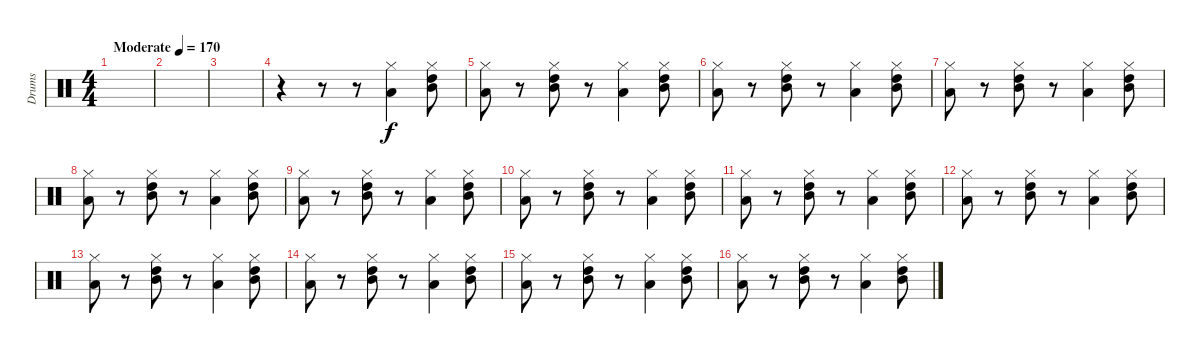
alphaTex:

\track ("Drums" "Drums") {instrument percussion}
\staff {score}
\articulation defaults
\ts (4 4)
\tempo (170 "Moderate")
\clef neutral
\ks c
|
|
|
r.4 r.8 r.8 ("Hi-Hat (closed)" "Low Floor Tom (hit)").4 ("Hi-Hat (closed)" "Mid Tom (hit)" "High Tom (hit)").8 |
("Hi-Hat (closed)" "Low Floor Tom (hit)").8 r.8 ("Hi-Hat (closed)" "Mid Tom (hit)" "High Tom (hit)").8 r.8 ("Hi-Hat (closed)" "Low Floor Tom (hit)").4 ("Hi-Hat (closed)" "Mid Tom (hit)" "High Tom (hit)").8 |
("Hi-Hat (closed)" "Low Floor Tom (hit)").8 r.8 ("Hi-Hat (closed)" "Mid Tom (hit)" "High Tom (hit)").8 r.8 ("Hi-Hat (closed)" "Low Floor Tom (hit)").4 ("Hi-Hat (closed)" "Mid Tom (hit)" "High Tom (hit)").8 |
("Hi-Hat (closed)" "Low Floor Tom (hit)").8 r.8 ("Hi-Hat (closed)" "Mid Tom (hit)" "High Tom (hit)").8 r.8 ("Hi-Hat (closed)" "Low Floor Tom (hit)").4 ("Hi-Hat (closed)" "Mid Tom (hit)" "High Tom (hit)").8 |
("Hi-Hat (closed)" "Low Floor Tom (hit)").8 r.8 ("Hi-Hat (closed)" "Mid Tom (hit)" "High Tom (hit)").8 r.8 ("Hi-Hat (closed)" "Low Floor Tom (hit)").4 ("Hi-Hat (closed)" "Mid Tom (hit)" "High Tom (hit)").8 |
("Hi-Hat (closed)" "Low Floor Tom (hit)").8 r.8 ("Hi-Hat (closed)" "Mid Tom (hit)" "High Tom (hit)").8 r.8 ("Hi-Hat (closed)" "Low Floor Tom (hit)").4 ("Hi-Hat (closed)" "Mid Tom (hit)" "High Tom (hit)").8 |
("Hi-Hat (closed)" "Low Floor Tom (hit)").8 r.8 ("Hi-Hat (closed)" "Mid Tom (hit)" "High Tom (hit)").8 r.8 ("Hi-Hat (closed)" "Low Floor Tom (hit)").4 ("Hi-Hat (closed)" "Mid Tom (hit)" "High Tom (hit)").8 |
("Hi-Hat (closed)" "Low Floor Tom (hit)").8 r.8 ("Hi-Hat (closed)" "Mid Tom (hit)" "High Tom (hit)").8 r.8 ("Hi-Hat (closed)" "Low Floor Tom (hit)").4 ("Hi-Hat (closed)" "Mid Tom (hit)" "High Tom (hit)").8 |
("Hi-Hat (closed)" "Low Floor Tom (hit)").8 r.8 ("Hi-Hat (closed)" "Mid Tom (hit)" "High Tom (hit)").8 r.8 ("Hi-Hat (closed)" "Low Floor Tom (hit)").4 ("Hi-Hat (closed)" "Mid Tom (hit)" "High Tom (hit)").8 |
("Hi-Hat (closed)" "Low Floor Tom (hit)").8 r.8 ("Hi-Hat (closed)" "Mid Tom (hit)" "High Tom (hit)").8 r.8 ("Hi-Hat (closed)" "Low Floor Tom (hit)").4 ("Hi-Hat (closed)" "Mid Tom (hit)" "High Tom (hit)").8 |
("Hi-Hat (closed)" "Low Floor Tom (hit)").8 r.8 ("Hi-Hat (closed)" "Mid Tom (hit)" "High Tom (hit)").8 r.8 ("Hi-Hat (closed)" "Low Floor Tom (hit)").4 ("Hi-Hat (closed)" "Mid Tom (hit)" "High Tom (hit)").8 |
("Hi-Hat (closed)" "Low Floor Tom (hit)").8 r.8 ("Hi-Hat (closed)" "Mid Tom (hit)" "High Tom (hit)").8 r.8 ("Hi-Hat (closed)" "Low Floor Tom (hit)").4 ("Hi-Hat (closed)" "Mid Tom (hit)" "High Tom (hit)").8 |
("Hi-Hat (closed)" "Low Floor Tom (hit)").8 r.8 ("Hi-Hat (closed)" "Mid Tom (hit)" "High Tom (hit)").8 r.8 ("Hi-Hat (closed)" "Low Floor Tom (hit)").4 ("Hi-Hat (closed)" "Mid Tom (hit)" "High Tom (hit)").8
